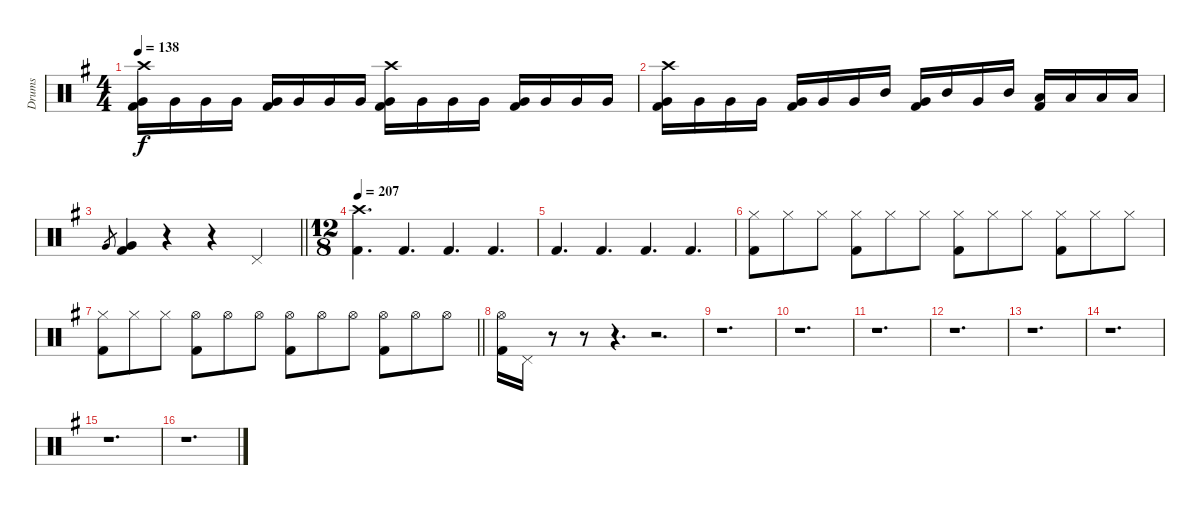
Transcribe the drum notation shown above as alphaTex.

\track ("Drums" "Drums") {instrument percussion}
\staff {score}
\articulation defaults
\ts (4 4)
\tempo 138
\clef neutral
\ks eminor
("Crash high (hit)" "Very Low Tom (hit)" "Kick (hit) 2").16{dy f} "Very Low Tom (hit)".16 "Very Low Tom (hit)".16 "Very Low Tom (hit)".16 ("Very Low Tom (hit)" "Kick (hit) 2").16 "Very Low Tom (hit)".16 "Very Low Tom (hit)".16 "Very Low Tom (hit)".16 ("Crash high (hit)" "Very Low Tom (hit)" "Kick (hit) 2").16 "Very Low Tom (hit)".16 "Very Low Tom (hit)".16 "Very Low Tom (hit)".16 ("Very Low Tom (hit)" "Kick (hit) 2").16 "Very Low Tom (hit)".16 "Very Low Tom (hit)".16 "Very Low Tom (hit)".16 |
("Crash high (hit)" "Very Low Tom (hit)" "Kick (hit) 2").16 "Very Low Tom (hit)".16 "Very Low Tom (hit)".16 "Very Low Tom (hit)".16 ("Very Low Tom (hit)" "Kick (hit) 2").16 "Very Low Tom (hit)".16 "Very Low Tom (hit)".16 "Mid Tom (hit)".16 ("Very Low Tom (hit)" "Kick (hit) 2").16 "Mid Tom (hit)".16 "Very Low Tom (hit)".16 "Mid Tom (hit)".16 ("Low Tom (hit)" "Kick (hit) 2").16 "Low Tom (hit)".16 "Low Tom (hit)".16 "Low Tom (hit)".16 |
\barLineRight lightlight
\ks g "Very Low Tom (hit)".8{gr}
("Very Low Tom (hit)" "Kick (hit) 2").4 r.4 r.4 "Pedal Hi-Hat (hit)".4 |
\ts (12 8)
\tempo 207
("Crash high (hit)" "Kick (hit) 2").4{d} "Kick (hit) 2".4{d} "Kick (hit) 2".4{d} "Kick (hit) 2".4{d} |
"Kick (hit) 2".4{d} "Kick (hit) 2".4{d} "Kick (hit) 2".4{d} "Kick (hit) 2".4{d} |
("Hi-Hat (closed)" "Kick (hit) 2").8 "Hi-Hat (closed)".8 "Hi-Hat (closed)".8 ("Hi-Hat (closed)" "Kick (hit) 2").8 "Hi-Hat (closed)".8 "Hi-Hat (closed)".8 ("Hi-Hat (closed)" "Kick (hit) 2").8 "Hi-Hat (closed)".8 "Hi-Hat (closed)".8 ("Hi-Hat (closed)" "Kick (hit) 2").8 "Hi-Hat (closed)".8 "Hi-Hat (closed)".8 |
\barLineRight lightlight
("Hi-Hat (closed)" "Kick (hit) 2").8 "Hi-Hat (closed)".8 "Hi-Hat (closed)".8 ("Hi-Hat (open)" "Kick (hit) 2").8{volume 16} "Hi-Hat (open)".8 "Hi-Hat (open)".8 ("Hi-Hat (open)" "Kick (hit) 2").8 "Hi-Hat (open)".8 "Hi-Hat (open)".8 ("Hi-Hat (open)" "Kick (hit) 2").8 "Hi-Hat (open)".8 "Hi-Hat (open)".8 |
\section ("" "")
("Hi-Hat (open)" "Kick (hit) 2").16 "Pedal Hi-Hat (hit)".16 r.8 r.8 r.4{d} r.2{d} |
r.1{d} |
r.1{d} |
r.1{d} |
r.1{d} |
r.1{d} |
r.1{d} |
r.1{d} |
r.1{d}
